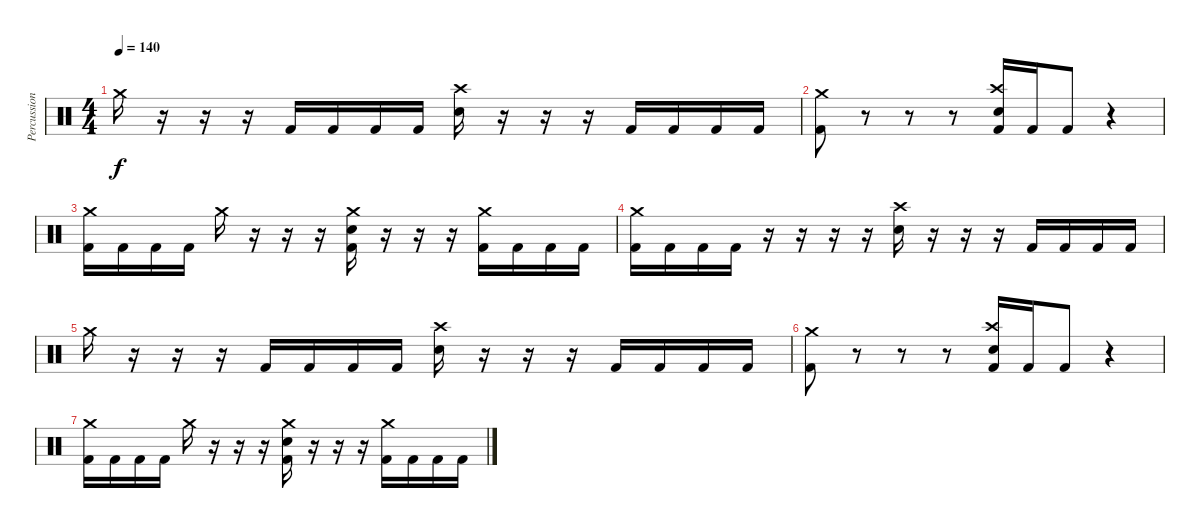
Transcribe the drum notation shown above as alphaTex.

\track ("Percussions" "Percussion") {instrument percussion}
\staff {score}
\articulation defaults
\ts (4 4)
\tempo 140
\clef neutral
\ks c "Crash medium (hit)".16{dy f}
r.16 r.16 r.16 "Kick (hit) 2".16 "Kick (hit) 2".16 "Kick (hit) 2".16 "Kick (hit) 2".16 ("Crash high (hit)" "Snare (hit) 2").16 r.16 r.16 r.16 "Kick (hit) 2".16 "Kick (hit) 2".16 "Kick (hit) 2".16 "Kick (hit) 2".16 |
("Crash medium (hit)" "Kick (hit) 2").8 r.8 r.8 r.8 ("Crash high (hit)" "Snare (hit) 2" "Kick (hit) 2").16 "Kick (hit) 2".16 "Kick (hit) 2".8 r.4 |
("Crash medium (hit)" "Kick (hit) 2").16 "Kick (hit) 2".16 "Kick (hit) 2".16 "Kick (hit) 2".16 "Crash medium (hit)".16 r.16 r.16 r.16 ("Crash medium (hit)" "Snare (hit) 2" "Kick (hit) 2").16 r.16 r.16 r.16 ("Crash medium (hit)" "Kick (hit) 2").16 "Kick (hit) 2".16 "Kick (hit) 2".16 "Kick (hit) 2".16 |
("Crash medium (hit)" "Kick (hit) 2").16 "Kick (hit) 2".16 "Kick (hit) 2".16 "Kick (hit) 2".16 r.16 r.16 r.16 r.16 ("Crash high (hit)" "Snare (hit) 2").16 r.16 r.16 r.16 "Kick (hit) 2".16 "Kick (hit) 2".16 "Kick (hit) 2".16 "Kick (hit) 2".16 |
"Crash medium (hit)".16 r.16 r.16 r.16 "Kick (hit) 2".16 "Kick (hit) 2".16 "Kick (hit) 2".16 "Kick (hit) 2".16 ("Crash high (hit)" "Snare (hit) 2").16 r.16 r.16 r.16 "Kick (hit) 2".16 "Kick (hit) 2".16 "Kick (hit) 2".16 "Kick (hit) 2".16 |
("Crash medium (hit)" "Kick (hit) 2").8 r.8 r.8 r.8 ("Crash high (hit)" "Snare (hit) 2" "Kick (hit) 2").16 "Kick (hit) 2".16 "Kick (hit) 2".8 r.4 |
("Crash medium (hit)" "Kick (hit) 2").16 "Kick (hit) 2".16 "Kick (hit) 2".16 "Kick (hit) 2".16 "Crash medium (hit)".16 r.16 r.16 r.16 ("Crash medium (hit)" "Snare (hit) 2" "Kick (hit) 2").16 r.16 r.16 r.16 ("Crash medium (hit)" "Kick (hit) 2").16 "Kick (hit) 2".16 "Kick (hit) 2".16 "Kick (hit) 2".16
